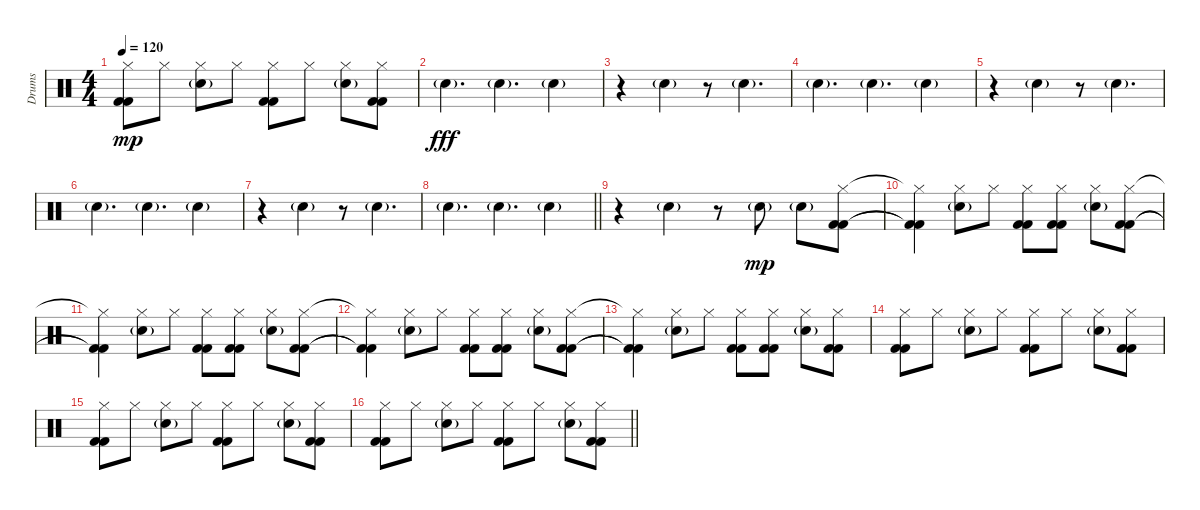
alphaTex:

\track ("Drums" "Drums") {instrument percussion}
\staff {score}
\articulation defaults
\ts (4 4)
\tempo 120
\clef neutral
\ks c
("Hi-Hat (closed)" "Kick (hit) 2" "Kick (hit) 2").8{dy mp} "Hi-Hat (closed)".8 ("Hi-Hat (closed)" "Snare (hit) 2"{g}).8 "Hi-Hat (closed)".8 ("Hi-Hat (closed)" "Kick (hit) 2" "Kick (hit) 2").8 "Hi-Hat (closed)".8 ("Hi-Hat (closed)" "Snare (hit) 2"{g}).8 ("Hi-Hat (closed)" "Kick (hit) 2" "Kick (hit) 2").8 |
"Snare (hit) 2"{g}.4{d dy fff} "Snare (hit) 2"{g}.4{d} "Snare (hit) 2"{g}.4 |
r.4 "Snare (hit) 2"{g}.4 r.8 "Snare (hit) 2"{g}.4{d} |
"Snare (hit) 2"{g}.4{d} "Snare (hit) 2"{g}.4{d} "Snare (hit) 2"{g}.4 |
r.4 "Snare (hit) 2"{g}.4 r.8 "Snare (hit) 2"{g}.4{d} |
"Snare (hit) 2"{g}.4{d} "Snare (hit) 2"{g}.4{d} "Snare (hit) 2"{g}.4 |
r.4 "Snare (hit) 2"{g}.4 r.8 "Snare (hit) 2"{g}.4{d} |
\barLineRight lightlight "Snare (hit) 2"{g}.4{d} "Snare (hit) 2"{g}.4{d} "Snare (hit) 2"{g}.4
|
r.4 "Snare (hit) 2"{g}.4 r.8 "Snare (hit) 2"{g}.8{dy mp} "Snare (hit) 2"{g}.8 ("Hi-Hat (closed)" "Kick (hit) 2" "Kick (hit) 2").8 |
("Hi-Hat (closed)"{t} "Kick (hit) 2"{t} "Kick (hit) 2"{t}).4 ("Hi-Hat (closed)" "Snare (hit) 2"{g}).8 "Hi-Hat (closed)".8 ("Hi-Hat (closed)" "Kick (hit) 2" "Kick (hit) 2").8 ("Hi-Hat (closed)" "Kick (hit) 2" "Kick (hit) 2").8 ("Hi-Hat (closed)" "Snare (hit) 2"{g}).8 ("Hi-Hat (closed)" "Kick (hit) 2" "Kick (hit) 2").8 |
("Hi-Hat (closed)"{t} "Kick (hit) 2"{t} "Kick (hit) 2"{t}).4 ("Hi-Hat (closed)" "Snare (hit) 2"{g}).8 "Hi-Hat (closed)".8 ("Hi-Hat (closed)" "Kick (hit) 2" "Kick (hit) 2").8 ("Hi-Hat (closed)" "Kick (hit) 2" "Kick (hit) 2").8 ("Hi-Hat (closed)" "Snare (hit) 2"{g}).8 ("Hi-Hat (closed)" "Kick (hit) 2" "Kick (hit) 2").8 |
("Hi-Hat (closed)"{t} "Kick (hit) 2"{t} "Kick (hit) 2"{t}).4 ("Hi-Hat (closed)" "Snare (hit) 2"{g}).8 "Hi-Hat (closed)".8 ("Hi-Hat (closed)" "Kick (hit) 2" "Kick (hit) 2").8 ("Hi-Hat (closed)" "Kick (hit) 2" "Kick (hit) 2").8 ("Hi-Hat (closed)" "Snare (hit) 2"{g}).8 ("Hi-Hat (closed)" "Kick (hit) 2" "Kick (hit) 2").8 |
("Hi-Hat (closed)"{t} "Kick (hit) 2"{t} "Kick (hit) 2"{t}).4 ("Hi-Hat (closed)" "Snare (hit) 2"{g}).8 "Hi-Hat (closed)".8 ("Hi-Hat (closed)" "Kick (hit) 2" "Kick (hit) 2").8 ("Hi-Hat (closed)" "Kick (hit) 2" "Kick (hit) 2").8 ("Hi-Hat (closed)" "Snare (hit) 2"{g}).8 ("Hi-Hat (closed)" "Kick (hit) 2" "Kick (hit) 2").8 |
("Hi-Hat (closed)" "Kick (hit) 2" "Kick (hit) 2").8 "Hi-Hat (closed)".8 ("Hi-Hat (closed)" "Snare (hit) 2"{g}).8 "Hi-Hat (closed)".8 ("Hi-Hat (closed)" "Kick (hit) 2" "Kick (hit) 2").8 "Hi-Hat (closed)".8 ("Hi-Hat (closed)" "Snare (hit) 2"{g}).8 ("Hi-Hat (closed)" "Kick (hit) 2" "Kick (hit) 2").8 |
("Hi-Hat (closed)" "Kick (hit) 2" "Kick (hit) 2").8 "Hi-Hat (closed)".8 ("Hi-Hat (closed)" "Snare (hit) 2"{g}).8 "Hi-Hat (closed)".8 ("Hi-Hat (closed)" "Kick (hit) 2" "Kick (hit) 2").8 "Hi-Hat (closed)".8 ("Hi-Hat (closed)" "Snare (hit) 2"{g}).8 ("Hi-Hat (closed)" "Kick (hit) 2" "Kick (hit) 2").8 |
\barLineRight lightlight
("Hi-Hat (closed)" "Kick (hit) 2" "Kick (hit) 2").8 "Hi-Hat (closed)".8 ("Hi-Hat (closed)" "Snare (hit) 2"{g}).8 "Hi-Hat (closed)".8 ("Hi-Hat (closed)" "Kick (hit) 2" "Kick (hit) 2").8 "Hi-Hat (closed)".8 ("Hi-Hat (closed)" "Snare (hit) 2"{g}).8 ("Hi-Hat (closed)" "Kick (hit) 2" "Kick (hit) 2").8
